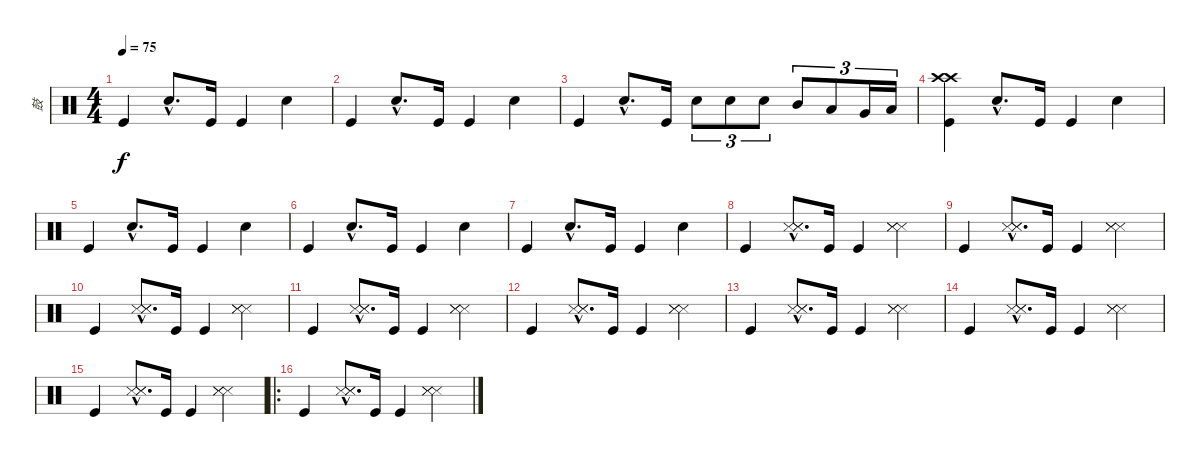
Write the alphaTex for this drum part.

\track ("鼓" "鼓") {instrument percussion}
\staff {score}
\articulation defaults
\ts (4 4)
\tempo 75
\clef neutral
\ks c "Kick (hit)".4{dy f} "Snare (hit) 2"{hac}.8{d} "Kick (hit)".16 "Kick (hit)".4 "Snare (hit) 2".4
|
"Kick (hit)".4 "Snare (hit) 2"{hac}.8{d} "Kick (hit)".16 "Kick (hit)".4 "Snare (hit) 2".4 |
"Kick (hit)".4 "Snare (hit) 2"{hac}.8{d} "Kick (hit)".16 "Snare (hit) 2".8{tu (3 2)} "Snare (hit) 2".8{tu (3 2)} "Snare (hit) 2".8{tu (3 2)} "Mid Tom (hit)".8{tu (3 2)} "Low Tom (hit)".8{tu (3 2)} "Very Low Tom (hit)".16{tu (3 2)} "Low Floor Tom (hit)".16{tu (3 2)} |
("Crash high (hit)" "Crash high (hit)" "Kick (hit)").4 "Snare (hit) 2"{hac}.8{d} "Kick (hit)".16 "Kick (hit)".4 "Snare (hit) 2".4 |
"Kick (hit)".4 "Snare (hit) 2"{hac}.8{d} "Kick (hit)".16 "Kick (hit)".4 "Snare (hit) 2".4 |
"Kick (hit)".4 "Snare (hit) 2"{hac}.8{d} "Kick (hit)".16 "Kick (hit)".4 "Snare (hit) 2".4 |
"Kick (hit)".4 "Snare (hit) 2"{hac}.8{d} "Kick (hit)".16 "Kick (hit)".4 "Snare (hit) 2".4 |
"Kick (hit)".4 ("Snare (side stick) 3"{hac} "Snare (side stick) 3"{hac} "Snare (side stick) 3"{hac}).8{d} "Kick (hit)".16 "Kick (hit)".4 ("Snare (side stick) 3" "Snare (side stick) 3" "Snare (side stick) 3").4 |
"Kick (hit)".4 ("Snare (side stick) 3"{hac} "Snare (side stick) 3"{hac} "Snare (side stick) 3"{hac}).8{d} "Kick (hit)".16 "Kick (hit)".4 ("Snare (side stick) 3" "Snare (side stick) 3" "Snare (side stick) 3").4 |
"Kick (hit)".4 ("Snare (side stick) 3"{hac} "Snare (side stick) 3"{hac} "Snare (side stick) 3"{hac}).8{d} "Kick (hit)".16 "Kick (hit)".4 ("Snare (side stick) 3" "Snare (side stick) 3" "Snare (side stick) 3").4 |
"Kick (hit)".4 ("Snare (side stick) 3"{hac} "Snare (side stick) 3"{hac} "Snare (side stick) 3"{hac}).8{d} "Kick (hit)".16 "Kick (hit)".4 ("Snare (side stick) 3" "Snare (side stick) 3" "Snare (side stick) 3").4 |
"Kick (hit)".4 ("Snare (side stick) 3"{hac} "Snare (side stick) 3"{hac} "Snare (side stick) 3"{hac}).8{d} "Kick (hit)".16 "Kick (hit)".4 ("Snare (side stick) 3" "Snare (side stick) 3" "Snare (side stick) 3").4 |
"Kick (hit)".4 ("Snare (side stick) 3"{hac} "Snare (side stick) 3"{hac} "Snare (side stick) 3"{hac}).8{d} "Kick (hit)".16 "Kick (hit)".4 ("Snare (side stick) 3" "Snare (side stick) 3" "Snare (side stick) 3").4 |
"Kick (hit)".4 ("Snare (side stick) 3"{hac} "Snare (side stick) 3"{hac} "Snare (side stick) 3"{hac}).8{d} "Kick (hit)".16 "Kick (hit)".4 ("Snare (side stick) 3" "Snare (side stick) 3" "Snare (side stick) 3").4 |
"Kick (hit)".4 ("Snare (side stick) 3"{hac} "Snare (side stick) 3"{hac} "Snare (side stick) 3"{hac}).8{d} "Kick (hit)".16 "Kick (hit)".4 ("Snare (side stick) 3" "Snare (side stick) 3" "Snare (side stick) 3").4 |
\ro "Kick (hit)".4
("Snare (side stick) 3"{hac} "Snare (side stick) 3"{hac} "Snare (side stick) 3"{hac}).8{d} "Kick (hit)".16 "Kick (hit)".4 ("Snare (side stick) 3" "Snare (side stick) 3" "Snare (side stick) 3").4
